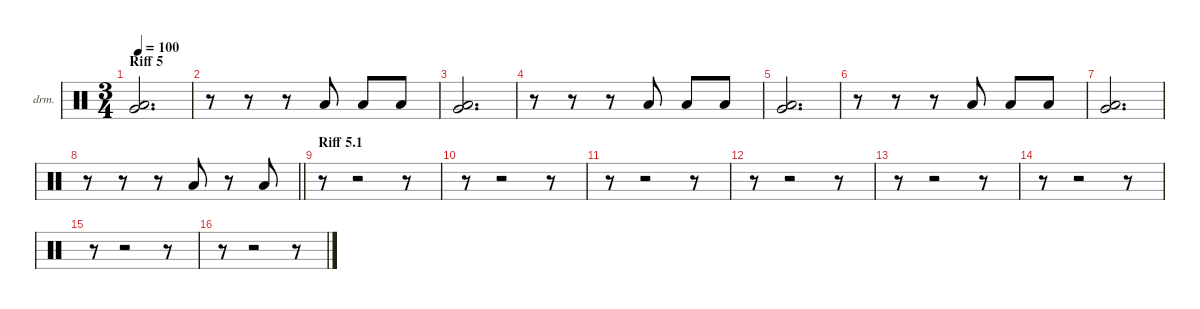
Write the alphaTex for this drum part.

\defaultSystemsLayout 4
\hideDynamics
\bracketExtendMode nobrackets
\firstSystemTrackNameOrientation horizontal
\otherSystemsTrackNameOrientation horizontal
\track ("Dondervuyscht" "drm.") {instrument percussion}
\staff {score}
\articulation defaults
\ts (3 4)
\section ("" "Riff 5")
\tempo 100
\clef neutral
\ks c
("Very Low Tom (hit)" "Low Floor Tom (hit)").2{d dy f} |
r.8 r.8 r.8 "Low Floor Tom (hit)".8 "Low Floor Tom (hit)".8 "Low Floor Tom (hit)".8 |
("Very Low Tom (hit)" "Low Floor Tom (hit)").2{d} |
r.8 r.8 r.8 "Low Floor Tom (hit)".8 "Low Floor Tom (hit)".8 "Low Floor Tom (hit)".8 |
("Very Low Tom (hit)" "Low Floor Tom (hit)").2{d} |
r.8 r.8 r.8 "Low Floor Tom (hit)".8 "Low Floor Tom (hit)".8 "Low Floor Tom (hit)".8 |
("Very Low Tom (hit)" "Low Floor Tom (hit)").2{d} |
\barLineRight lightlight
r.8 r.8 r.8 "Low Floor Tom (hit)".8 r.8 "Low Floor Tom (hit)".8 |
\section ("" "Riff 5.1")
r.8 r.2 r.8 |
r.8 r.2 r.8 |
r.8 r.2 r.8 |
r.8 r.2 r.8 |
r.8 r.2 r.8 |
r.8 r.2 r.8 |
r.8 r.2 r.8 |
r.8 r.2 r.8
